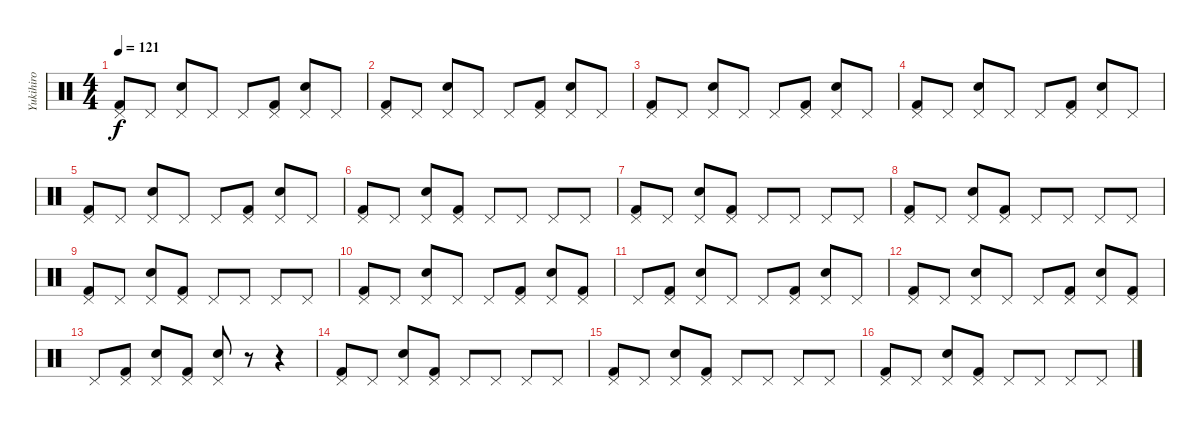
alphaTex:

\track ("Yukihiro" "Yukihiro") {instrument percussion}
\staff {score}
\articulation defaults
\ts (4 4)
\tempo 121
\clef neutral
\ks c
("Pedal Hi-Hat (hit)" "Kick (hit) 2").8{dy f} "Pedal Hi-Hat (hit)".8 ("Pedal Hi-Hat (hit)" "Electric Snare (hit)").8 "Pedal Hi-Hat (hit)".8 "Pedal Hi-Hat (hit)".8 ("Pedal Hi-Hat (hit)" "Kick (hit) 2").8 ("Pedal Hi-Hat (hit)" "Electric Snare (hit)").8 "Pedal Hi-Hat (hit)".8 |
("Pedal Hi-Hat (hit)" "Kick (hit) 2").8 "Pedal Hi-Hat (hit)".8 ("Pedal Hi-Hat (hit)" "Electric Snare (hit)").8 "Pedal Hi-Hat (hit)".8 "Pedal Hi-Hat (hit)".8 ("Pedal Hi-Hat (hit)" "Kick (hit) 2").8 ("Pedal Hi-Hat (hit)" "Electric Snare (hit)").8 "Pedal Hi-Hat (hit)".8 |
("Pedal Hi-Hat (hit)" "Kick (hit) 2").8 "Pedal Hi-Hat (hit)".8 ("Pedal Hi-Hat (hit)" "Electric Snare (hit)").8 "Pedal Hi-Hat (hit)".8 "Pedal Hi-Hat (hit)".8 ("Pedal Hi-Hat (hit)" "Kick (hit) 2").8 ("Pedal Hi-Hat (hit)" "Electric Snare (hit)").8 "Pedal Hi-Hat (hit)".8 |
("Pedal Hi-Hat (hit)" "Kick (hit) 2").8 "Pedal Hi-Hat (hit)".8 ("Pedal Hi-Hat (hit)" "Electric Snare (hit)").8 "Pedal Hi-Hat (hit)".8 "Pedal Hi-Hat (hit)".8 ("Pedal Hi-Hat (hit)" "Kick (hit) 2").8 ("Pedal Hi-Hat (hit)" "Electric Snare (hit)").8 "Pedal Hi-Hat (hit)".8 |
("Pedal Hi-Hat (hit)" "Kick (hit) 2").8 "Pedal Hi-Hat (hit)".8 ("Pedal Hi-Hat (hit)" "Electric Snare (hit)").8 "Pedal Hi-Hat (hit)".8 "Pedal Hi-Hat (hit)".8 ("Pedal Hi-Hat (hit)" "Kick (hit) 2").8 ("Pedal Hi-Hat (hit)" "Electric Snare (hit)").8 "Pedal Hi-Hat (hit)".8 |
("Pedal Hi-Hat (hit)" "Kick (hit) 2").8 "Pedal Hi-Hat (hit)".8 ("Pedal Hi-Hat (hit)" "Electric Snare (hit)").8 ("Pedal Hi-Hat (hit)" "Kick (hit) 2").8 "Pedal Hi-Hat (hit)".8 "Pedal Hi-Hat (hit)".8 "Pedal Hi-Hat (hit)".8 "Pedal Hi-Hat (hit)".8 |
("Pedal Hi-Hat (hit)" "Kick (hit) 2").8 "Pedal Hi-Hat (hit)".8 ("Pedal Hi-Hat (hit)" "Electric Snare (hit)").8 ("Pedal Hi-Hat (hit)" "Kick (hit) 2").8 "Pedal Hi-Hat (hit)".8 "Pedal Hi-Hat (hit)".8 "Pedal Hi-Hat (hit)".8 "Pedal Hi-Hat (hit)".8 |
("Pedal Hi-Hat (hit)" "Kick (hit) 2").8 "Pedal Hi-Hat (hit)".8 ("Pedal Hi-Hat (hit)" "Electric Snare (hit)").8 ("Pedal Hi-Hat (hit)" "Kick (hit) 2").8 "Pedal Hi-Hat (hit)".8 "Pedal Hi-Hat (hit)".8 "Pedal Hi-Hat (hit)".8 "Pedal Hi-Hat (hit)".8 |
("Pedal Hi-Hat (hit)" "Kick (hit) 2").8 "Pedal Hi-Hat (hit)".8 ("Pedal Hi-Hat (hit)" "Electric Snare (hit)").8 ("Pedal Hi-Hat (hit)" "Kick (hit) 2").8 "Pedal Hi-Hat (hit)".8 "Pedal Hi-Hat (hit)".8 "Pedal Hi-Hat (hit)".8 "Pedal Hi-Hat (hit)".8 |
("Pedal Hi-Hat (hit)" "Kick (hit) 2").8 "Pedal Hi-Hat (hit)".8 ("Pedal Hi-Hat (hit)" "Electric Snare (hit)").8 "Pedal Hi-Hat (hit)".8 "Pedal Hi-Hat (hit)".8 ("Pedal Hi-Hat (hit)" "Kick (hit) 2").8 ("Pedal Hi-Hat (hit)" "Electric Snare (hit)").8 ("Pedal Hi-Hat (hit)" "Kick (hit) 2").8 |
"Pedal Hi-Hat (hit)".8 ("Pedal Hi-Hat (hit)" "Kick (hit) 2").8 ("Pedal Hi-Hat (hit)" "Electric Snare (hit)").8 "Pedal Hi-Hat (hit)".8 "Pedal Hi-Hat (hit)".8 ("Pedal Hi-Hat (hit)" "Kick (hit) 2").8 ("Pedal Hi-Hat (hit)" "Electric Snare (hit)").8 "Pedal Hi-Hat (hit)".8 |
("Pedal Hi-Hat (hit)" "Kick (hit) 2").8 "Pedal Hi-Hat (hit)".8 ("Pedal Hi-Hat (hit)" "Electric Snare (hit)").8 "Pedal Hi-Hat (hit)".8 "Pedal Hi-Hat (hit)".8 ("Pedal Hi-Hat (hit)" "Kick (hit) 2").8 ("Pedal Hi-Hat (hit)" "Electric Snare (hit)").8 ("Pedal Hi-Hat (hit)" "Kick (hit) 2").8 |
"Pedal Hi-Hat (hit)".8 ("Pedal Hi-Hat (hit)" "Kick (hit) 2").8 ("Pedal Hi-Hat (hit)" "Electric Snare (hit)").8 ("Pedal Hi-Hat (hit)" "Kick (hit) 2").8 ("Pedal Hi-Hat (hit)" "Electric Snare (hit)").8 r.8 r.4 |
("Pedal Hi-Hat (hit)" "Kick (hit) 2").8 "Pedal Hi-Hat (hit)".8 ("Pedal Hi-Hat (hit)" "Electric Snare (hit)").8 ("Pedal Hi-Hat (hit)" "Kick (hit) 2").8 "Pedal Hi-Hat (hit)".8 "Pedal Hi-Hat (hit)".8 "Pedal Hi-Hat (hit)".8 "Pedal Hi-Hat (hit)".8 |
("Pedal Hi-Hat (hit)" "Kick (hit) 2").8 "Pedal Hi-Hat (hit)".8 ("Pedal Hi-Hat (hit)" "Electric Snare (hit)").8 ("Pedal Hi-Hat (hit)" "Kick (hit) 2").8 "Pedal Hi-Hat (hit)".8 "Pedal Hi-Hat (hit)".8 "Pedal Hi-Hat (hit)".8 "Pedal Hi-Hat (hit)".8 |
("Pedal Hi-Hat (hit)" "Kick (hit) 2").8 "Pedal Hi-Hat (hit)".8 ("Pedal Hi-Hat (hit)" "Electric Snare (hit)").8 ("Pedal Hi-Hat (hit)" "Kick (hit) 2").8 "Pedal Hi-Hat (hit)".8 "Pedal Hi-Hat (hit)".8 "Pedal Hi-Hat (hit)".8 "Pedal Hi-Hat (hit)".8
